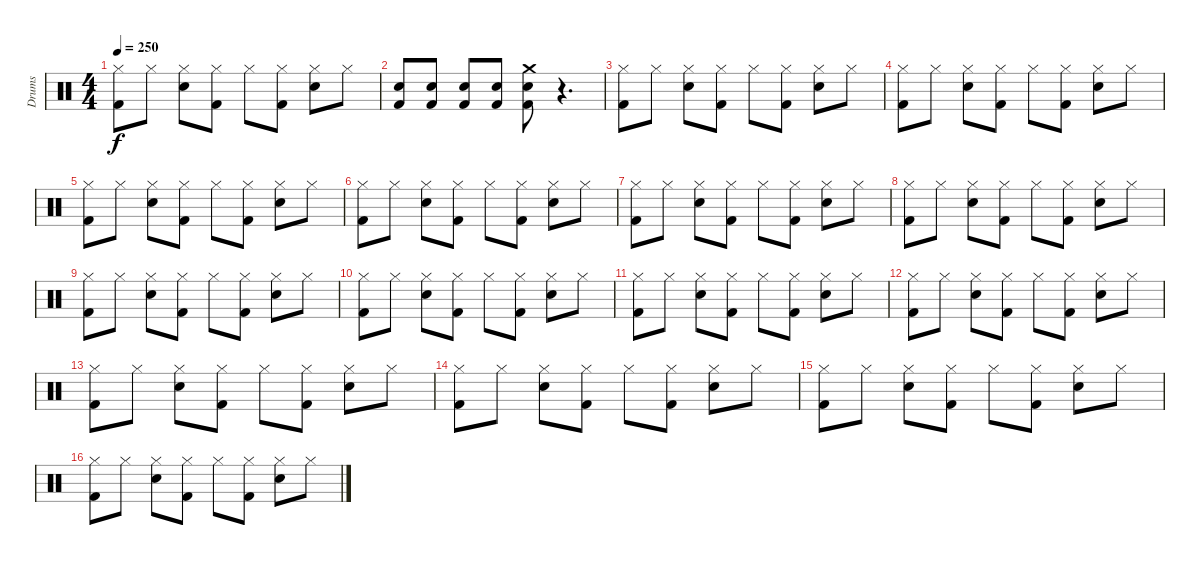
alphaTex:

\track ("Drums" "Drums") {instrument percussion}
\staff {score}
\articulation defaults
\ts (4 4)
\tempo 250
\clef neutral
\ks c
("Kick (hit) 2" "Hi-Hat (closed)").8{dy f} "Hi-Hat (closed)".8 ("Snare (hit) 2" "Hi-Hat (closed)").8 ("Kick (hit) 2" "Hi-Hat (closed)").8 "Hi-Hat (closed)".8 ("Kick (hit) 2" "Hi-Hat (closed)").8 ("Snare (hit) 2" "Hi-Hat (closed)").8 "Hi-Hat (closed)".8 |
("Kick (hit) 2" "Snare (hit) 2").8 ("Kick (hit) 2" "Snare (hit) 2").8 ("Kick (hit) 2" "Snare (hit) 2").8 ("Kick (hit) 2" "Snare (hit) 2").8 ("Kick (hit) 2" "Snare (hit) 2" "Crash medium (hit)").8 r.4{d} |
("Kick (hit) 2" "Hi-Hat (closed)").8 "Hi-Hat (closed)".8 ("Snare (hit) 2" "Hi-Hat (closed)").8 ("Kick (hit) 2" "Hi-Hat (closed)").8 "Hi-Hat (closed)".8 ("Kick (hit) 2" "Hi-Hat (closed)").8 ("Snare (hit) 2" "Hi-Hat (closed)").8 "Hi-Hat (closed)".8 |
("Kick (hit) 2" "Hi-Hat (closed)").8 "Hi-Hat (closed)".8 ("Snare (hit) 2" "Hi-Hat (closed)").8 ("Kick (hit) 2" "Hi-Hat (closed)").8 "Hi-Hat (closed)".8 ("Kick (hit) 2" "Hi-Hat (closed)").8 ("Snare (hit) 2" "Hi-Hat (closed)").8 "Hi-Hat (closed)".8 |
("Kick (hit) 2" "Hi-Hat (closed)").8 "Hi-Hat (closed)".8 ("Snare (hit) 2" "Hi-Hat (closed)").8 ("Kick (hit) 2" "Hi-Hat (closed)").8 "Hi-Hat (closed)".8 ("Kick (hit) 2" "Hi-Hat (closed)").8 ("Snare (hit) 2" "Hi-Hat (closed)").8 "Hi-Hat (closed)".8 |
("Kick (hit) 2" "Hi-Hat (closed)").8 "Hi-Hat (closed)".8 ("Snare (hit) 2" "Hi-Hat (closed)").8 ("Kick (hit) 2" "Hi-Hat (closed)").8 "Hi-Hat (closed)".8 ("Kick (hit) 2" "Hi-Hat (closed)").8 ("Snare (hit) 2" "Hi-Hat (closed)").8 "Hi-Hat (closed)".8 |
("Kick (hit) 2" "Hi-Hat (closed)").8 "Hi-Hat (closed)".8 ("Snare (hit) 2" "Hi-Hat (closed)").8 ("Kick (hit) 2" "Hi-Hat (closed)").8 "Hi-Hat (closed)".8 ("Kick (hit) 2" "Hi-Hat (closed)").8 ("Snare (hit) 2" "Hi-Hat (closed)").8 "Hi-Hat (closed)".8 |
("Kick (hit) 2" "Hi-Hat (closed)").8 "Hi-Hat (closed)".8 ("Snare (hit) 2" "Hi-Hat (closed)").8 ("Kick (hit) 2" "Hi-Hat (closed)").8 "Hi-Hat (closed)".8 ("Kick (hit) 2" "Hi-Hat (closed)").8 ("Snare (hit) 2" "Hi-Hat (closed)").8 "Hi-Hat (closed)".8 |
("Kick (hit) 2" "Hi-Hat (closed)").8 "Hi-Hat (closed)".8 ("Snare (hit) 2" "Hi-Hat (closed)").8 ("Kick (hit) 2" "Hi-Hat (closed)").8 "Hi-Hat (closed)".8 ("Kick (hit) 2" "Hi-Hat (closed)").8 ("Snare (hit) 2" "Hi-Hat (closed)").8 "Hi-Hat (closed)".8 |
("Kick (hit) 2" "Hi-Hat (closed)").8 "Hi-Hat (closed)".8 ("Snare (hit) 2" "Hi-Hat (closed)").8 ("Kick (hit) 2" "Hi-Hat (closed)").8 "Hi-Hat (closed)".8 ("Kick (hit) 2" "Hi-Hat (closed)").8 ("Snare (hit) 2" "Hi-Hat (closed)").8 "Hi-Hat (closed)".8 |
("Kick (hit) 2" "Hi-Hat (closed)").8 "Hi-Hat (closed)".8 ("Snare (hit) 2" "Hi-Hat (closed)").8 ("Kick (hit) 2" "Hi-Hat (closed)").8 "Hi-Hat (closed)".8 ("Kick (hit) 2" "Hi-Hat (closed)").8 ("Snare (hit) 2" "Hi-Hat (closed)").8 "Hi-Hat (closed)".8 |
("Kick (hit) 2" "Hi-Hat (closed)").8 "Hi-Hat (closed)".8 ("Snare (hit) 2" "Hi-Hat (closed)").8 ("Kick (hit) 2" "Hi-Hat (closed)").8 "Hi-Hat (closed)".8 ("Kick (hit) 2" "Hi-Hat (closed)").8 ("Snare (hit) 2" "Hi-Hat (closed)").8 "Hi-Hat (closed)".8 |
("Kick (hit) 2" "Hi-Hat (closed)").8 "Hi-Hat (closed)".8 ("Snare (hit) 2" "Hi-Hat (closed)").8 ("Kick (hit) 2" "Hi-Hat (closed)").8 "Hi-Hat (closed)".8 ("Kick (hit) 2" "Hi-Hat (closed)").8 ("Snare (hit) 2" "Hi-Hat (closed)").8 "Hi-Hat (closed)".8 |
("Kick (hit) 2" "Hi-Hat (closed)").8 "Hi-Hat (closed)".8 ("Snare (hit) 2" "Hi-Hat (closed)").8 ("Kick (hit) 2" "Hi-Hat (closed)").8 "Hi-Hat (closed)".8 ("Kick (hit) 2" "Hi-Hat (closed)").8 ("Snare (hit) 2" "Hi-Hat (closed)").8 "Hi-Hat (closed)".8 |
("Kick (hit) 2" "Hi-Hat (closed)").8 "Hi-Hat (closed)".8 ("Snare (hit) 2" "Hi-Hat (closed)").8 ("Kick (hit) 2" "Hi-Hat (closed)").8 "Hi-Hat (closed)".8 ("Kick (hit) 2" "Hi-Hat (closed)").8 ("Snare (hit) 2" "Hi-Hat (closed)").8 "Hi-Hat (closed)".8 |
("Kick (hit) 2" "Hi-Hat (closed)").8 "Hi-Hat (closed)".8 ("Snare (hit) 2" "Hi-Hat (closed)").8 ("Kick (hit) 2" "Hi-Hat (closed)").8 "Hi-Hat (closed)".8 ("Kick (hit) 2" "Hi-Hat (closed)").8 ("Snare (hit) 2" "Hi-Hat (closed)").8 "Hi-Hat (closed)".8
